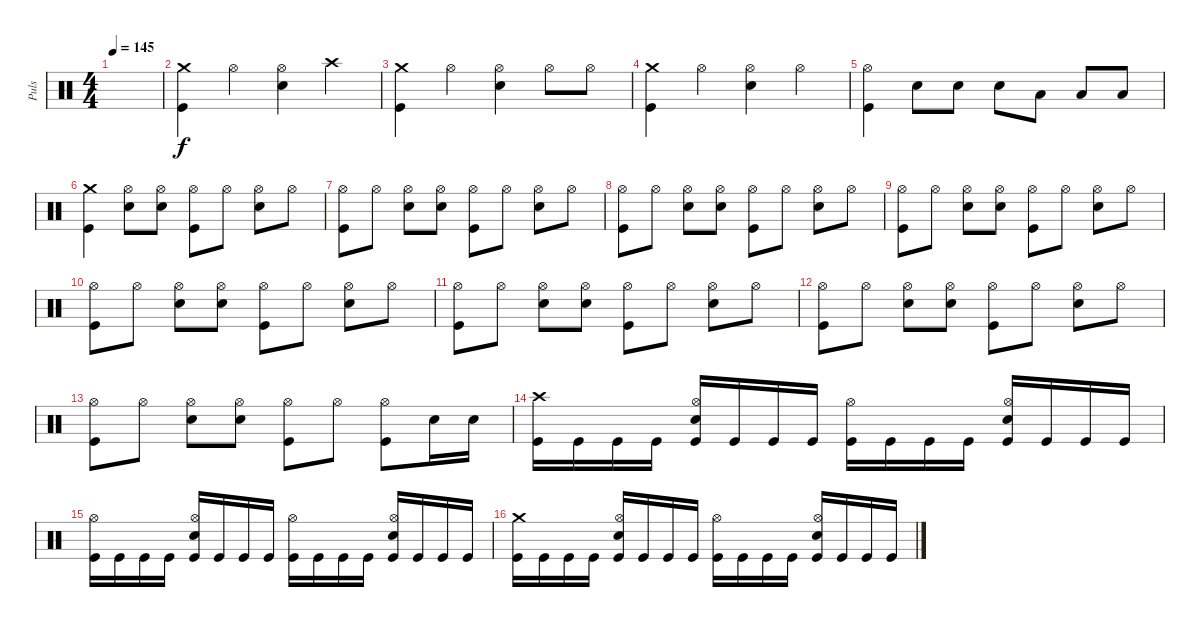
\track ("Puls" "Puls") {instrument percussion}
\staff {score}
\articulation defaults
\ts (4 4)
\tempo 145
\clef neutral
\ks c
|
("Crash medium (hit)" "Kick (hit)").4 "Hi-Hat (open)".4 ("Hi-Hat (open)" "Snare (hit) 2").4 "Crash high (hit)".4 |
("Crash medium (hit)" "Kick (hit)").4 "Hi-Hat (open)".4 ("Hi-Hat (open)" "Snare (hit) 2").4 "Hi-Hat (open)".8 "Hi-Hat (open)".8 |
("Crash medium (hit)" "Kick (hit)").4 "Hi-Hat (open)".4 ("Hi-Hat (open)" "Snare (hit) 2").4 "Hi-Hat (open)".4 |
("Hi-Hat (open)" "Kick (hit)").4 "Snare (hit) 2".8 "Snare (hit) 2".8 "Snare (hit) 2".8 "Low Tom (hit)".8 "Low Tom (hit)".8 "Low Tom (hit)".8 |
("Crash medium (hit)" "Kick (hit)").4 ("Hi-Hat (open)" "Snare (hit) 2").8 ("Hi-Hat (open)" "Snare (hit) 2").8 ("Hi-Hat (open)" "Kick (hit)").8 "Hi-Hat (open)".8 ("Hi-Hat (open)" "Snare (hit) 2").8 "Hi-Hat (open)".8 |
("Hi-Hat (open)" "Kick (hit)").8 "Hi-Hat (open)".8 ("Hi-Hat (open)" "Snare (hit) 2").8 ("Hi-Hat (open)" "Snare (hit) 2").8 ("Hi-Hat (open)" "Kick (hit)").8 "Hi-Hat (open)".8 ("Hi-Hat (open)" "Snare (hit) 2").8 "Hi-Hat (open)".8 |
("Hi-Hat (open)" "Kick (hit)").8 "Hi-Hat (open)".8 ("Hi-Hat (open)" "Snare (hit) 2").8 ("Hi-Hat (open)" "Snare (hit) 2").8 ("Hi-Hat (open)" "Kick (hit)").8 "Hi-Hat (open)".8 ("Hi-Hat (open)" "Snare (hit) 2").8 "Hi-Hat (open)".8 |
("Hi-Hat (open)" "Kick (hit)").8 "Hi-Hat (open)".8 ("Hi-Hat (open)" "Snare (hit) 2").8 ("Hi-Hat (open)" "Snare (hit) 2").8 ("Hi-Hat (open)" "Kick (hit)").8 "Hi-Hat (open)".8 ("Hi-Hat (open)" "Snare (hit) 2").8 "Hi-Hat (open)".8 |
("Hi-Hat (open)" "Kick (hit)").8 "Hi-Hat (open)".8 ("Hi-Hat (open)" "Snare (hit) 2").8 ("Hi-Hat (open)" "Snare (hit) 2").8 ("Hi-Hat (open)" "Kick (hit)").8 "Hi-Hat (open)".8 ("Hi-Hat (open)" "Snare (hit) 2").8 "Hi-Hat (open)".8 |
("Hi-Hat (open)" "Kick (hit)").8 "Hi-Hat (open)".8 ("Hi-Hat (open)" "Snare (hit) 2").8 ("Hi-Hat (open)" "Snare (hit) 2").8 ("Hi-Hat (open)" "Kick (hit)").8 "Hi-Hat (open)".8 ("Hi-Hat (open)" "Snare (hit) 2").8 "Hi-Hat (open)".8 |
("Hi-Hat (open)" "Kick (hit)").8 "Hi-Hat (open)".8 ("Hi-Hat (open)" "Snare (hit) 2").8 ("Hi-Hat (open)" "Snare (hit) 2").8 ("Hi-Hat (open)" "Kick (hit)").8 "Hi-Hat (open)".8 ("Hi-Hat (open)" "Snare (hit) 2").8 "Hi-Hat (open)".8 |
("Hi-Hat (open)" "Kick (hit)").8 "Hi-Hat (open)".8 ("Hi-Hat (open)" "Snare (hit) 2").8 ("Hi-Hat (open)" "Snare (hit) 2").8 ("Hi-Hat (open)" "Kick (hit)").8 "Hi-Hat (open)".8 ("Hi-Hat (open)" "Kick (hit)").8 "Snare (hit) 2".16 "Snare (hit) 2".16 |
("Kick (hit)" "Crash high (hit)").16 "Kick (hit)".16 "Kick (hit)".16 "Kick (hit)".16 ("Kick (hit)" "Hi-Hat (open)" "Snare (hit) 2").16 "Kick (hit)".16 "Kick (hit)".16 "Kick (hit)".16 ("Kick (hit)" "Hi-Hat (open)").16 "Kick (hit)".16 "Kick (hit)".16 "Kick (hit)".16 ("Kick (hit)" "Hi-Hat (open)" "Snare (hit) 2").16 "Kick (hit)".16 "Kick (hit)".16 "Kick (hit)".16 |
("Kick (hit)" "Hi-Hat (open)").16 "Kick (hit)".16 "Kick (hit)".16 "Kick (hit)".16 ("Kick (hit)" "Hi-Hat (open)" "Snare (hit) 2").16 "Kick (hit)".16 "Kick (hit)".16 "Kick (hit)".16 ("Kick (hit)" "Hi-Hat (open)").16 "Kick (hit)".16 "Kick (hit)".16 "Kick (hit)".16 ("Kick (hit)" "Hi-Hat (open)" "Snare (hit) 2").16 "Kick (hit)".16 "Kick (hit)".16 "Kick (hit)".16 |
("Crash medium (hit)" "Kick (hit)").16 "Kick (hit)".16 "Kick (hit)".16 "Kick (hit)".16 ("Kick (hit)" "Hi-Hat (open)" "Snare (hit) 2").16 "Kick (hit)".16 "Kick (hit)".16 "Kick (hit)".16 ("Kick (hit)" "Hi-Hat (open)").16 "Kick (hit)".16 "Kick (hit)".16 "Kick (hit)".16 ("Kick (hit)" "Hi-Hat (open)" "Snare (hit) 2").16 "Kick (hit)".16 "Kick (hit)".16 "Kick (hit)".16
